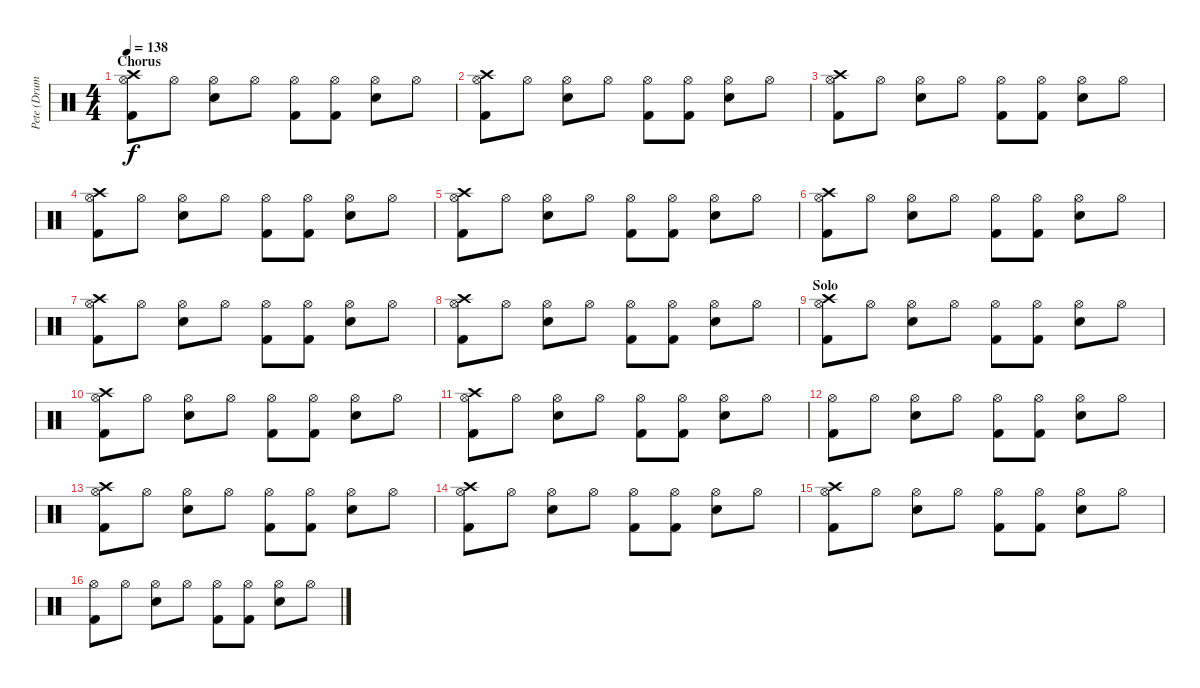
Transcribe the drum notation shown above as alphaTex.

\track ("Pete (Drums)" "Pete (Drum") {instrument percussion}
\staff {score}
\articulation defaults
\ts (4 4)
\section ("" "Chorus")
\tempo 138
\clef neutral
\ks c
("Hi-Hat (open)" "Crash high (hit)" "Kick (hit) 2").8{dy f} "Hi-Hat (open)".8 ("Hi-Hat (open)" "Snare (hit) 2").8 "Hi-Hat (open)".8 ("Hi-Hat (open)" "Kick (hit) 2").8 ("Hi-Hat (open)" "Kick (hit) 2").8 ("Hi-Hat (open)" "Snare (hit) 2").8 "Hi-Hat (open)".8 |
("Hi-Hat (open)" "Crash high (hit)" "Kick (hit) 2").8 "Hi-Hat (open)".8 ("Hi-Hat (open)" "Snare (hit) 2").8 "Hi-Hat (open)".8 ("Hi-Hat (open)" "Kick (hit) 2").8 ("Hi-Hat (open)" "Kick (hit) 2").8 ("Hi-Hat (open)" "Snare (hit) 2").8 "Hi-Hat (open)".8 |
("Hi-Hat (open)" "Crash high (hit)" "Kick (hit) 2").8 "Hi-Hat (open)".8 ("Hi-Hat (open)" "Snare (hit) 2").8 "Hi-Hat (open)".8 ("Hi-Hat (open)" "Kick (hit) 2").8 ("Hi-Hat (open)" "Kick (hit) 2").8 ("Hi-Hat (open)" "Snare (hit) 2").8 "Hi-Hat (open)".8 |
("Hi-Hat (open)" "Crash high (hit)" "Kick (hit) 2").8 "Hi-Hat (open)".8 ("Hi-Hat (open)" "Snare (hit) 2").8 "Hi-Hat (open)".8 ("Hi-Hat (open)" "Kick (hit) 2").8 ("Hi-Hat (open)" "Kick (hit) 2").8 ("Hi-Hat (open)" "Snare (hit) 2").8 "Hi-Hat (open)".8 |
("Hi-Hat (open)" "Crash high (hit)" "Kick (hit) 2").8 "Hi-Hat (open)".8 ("Hi-Hat (open)" "Snare (hit) 2").8 "Hi-Hat (open)".8 ("Hi-Hat (open)" "Kick (hit) 2").8 ("Hi-Hat (open)" "Kick (hit) 2").8 ("Hi-Hat (open)" "Snare (hit) 2").8 "Hi-Hat (open)".8 |
("Hi-Hat (open)" "Crash high (hit)" "Kick (hit) 2").8 "Hi-Hat (open)".8 ("Hi-Hat (open)" "Snare (hit) 2").8 "Hi-Hat (open)".8 ("Hi-Hat (open)" "Kick (hit) 2").8 ("Hi-Hat (open)" "Kick (hit) 2").8 ("Hi-Hat (open)" "Snare (hit) 2").8 "Hi-Hat (open)".8 |
("Hi-Hat (open)" "Crash high (hit)" "Kick (hit) 2").8 "Hi-Hat (open)".8 ("Hi-Hat (open)" "Snare (hit) 2").8 "Hi-Hat (open)".8 ("Hi-Hat (open)" "Kick (hit) 2").8 ("Hi-Hat (open)" "Kick (hit) 2").8 ("Hi-Hat (open)" "Snare (hit) 2").8 "Hi-Hat (open)".8 |
("Hi-Hat (open)" "Crash high (hit)" "Kick (hit) 2").8 "Hi-Hat (open)".8 ("Hi-Hat (open)" "Snare (hit) 2").8 "Hi-Hat (open)".8 ("Hi-Hat (open)" "Kick (hit) 2").8 ("Hi-Hat (open)" "Kick (hit) 2").8 ("Hi-Hat (open)" "Snare (hit) 2").8 "Hi-Hat (open)".8 |
\section ("" "Solo")
("Hi-Hat (open)" "Crash high (hit)" "Kick (hit) 2").8 "Hi-Hat (open)".8 ("Hi-Hat (open)" "Snare (hit) 2").8 "Hi-Hat (open)".8 ("Hi-Hat (open)" "Kick (hit) 2").8 ("Hi-Hat (open)" "Kick (hit) 2").8 ("Hi-Hat (open)" "Snare (hit) 2").8 "Hi-Hat (open)".8 |
("Hi-Hat (open)" "Crash high (hit)" "Kick (hit) 2").8 "Hi-Hat (open)".8 ("Hi-Hat (open)" "Snare (hit) 2").8 "Hi-Hat (open)".8 ("Hi-Hat (open)" "Kick (hit) 2").8 ("Hi-Hat (open)" "Kick (hit) 2").8 ("Hi-Hat (open)" "Snare (hit) 2").8 "Hi-Hat (open)".8 |
("Hi-Hat (open)" "Crash high (hit)" "Kick (hit) 2").8 "Hi-Hat (open)".8 ("Hi-Hat (open)" "Snare (hit) 2").8 "Hi-Hat (open)".8 ("Hi-Hat (open)" "Kick (hit) 2").8 ("Hi-Hat (open)" "Kick (hit) 2").8 ("Hi-Hat (open)" "Snare (hit) 2").8 "Hi-Hat (open)".8 |
("Hi-Hat (open)" "Kick (hit) 2").8 "Hi-Hat (open)".8 ("Hi-Hat (open)" "Snare (hit) 2").8 "Hi-Hat (open)".8 ("Hi-Hat (open)" "Kick (hit) 2").8 ("Hi-Hat (open)" "Kick (hit) 2").8 ("Hi-Hat (open)" "Snare (hit) 2").8 "Hi-Hat (open)".8 |
("Hi-Hat (open)" "Crash high (hit)" "Kick (hit) 2").8 "Hi-Hat (open)".8 ("Hi-Hat (open)" "Snare (hit) 2").8 "Hi-Hat (open)".8 ("Hi-Hat (open)" "Kick (hit) 2").8 ("Hi-Hat (open)" "Kick (hit) 2").8 ("Hi-Hat (open)" "Snare (hit) 2").8 "Hi-Hat (open)".8 |
("Hi-Hat (open)" "Crash high (hit)" "Kick (hit) 2").8 "Hi-Hat (open)".8 ("Hi-Hat (open)" "Snare (hit) 2").8 "Hi-Hat (open)".8 ("Hi-Hat (open)" "Kick (hit) 2").8 ("Hi-Hat (open)" "Kick (hit) 2").8 ("Hi-Hat (open)" "Snare (hit) 2").8 "Hi-Hat (open)".8 |
("Hi-Hat (open)" "Crash high (hit)" "Kick (hit) 2").8 "Hi-Hat (open)".8 ("Hi-Hat (open)" "Snare (hit) 2").8 "Hi-Hat (open)".8 ("Hi-Hat (open)" "Kick (hit) 2").8 ("Hi-Hat (open)" "Kick (hit) 2").8 ("Hi-Hat (open)" "Snare (hit) 2").8 "Hi-Hat (open)".8 |
("Hi-Hat (open)" "Kick (hit) 2").8 "Hi-Hat (open)".8 ("Hi-Hat (open)" "Snare (hit) 2").8 "Hi-Hat (open)".8 ("Hi-Hat (open)" "Kick (hit) 2").8 ("Hi-Hat (open)" "Kick (hit) 2").8 ("Hi-Hat (open)" "Snare (hit) 2").8 "Hi-Hat (open)".8
